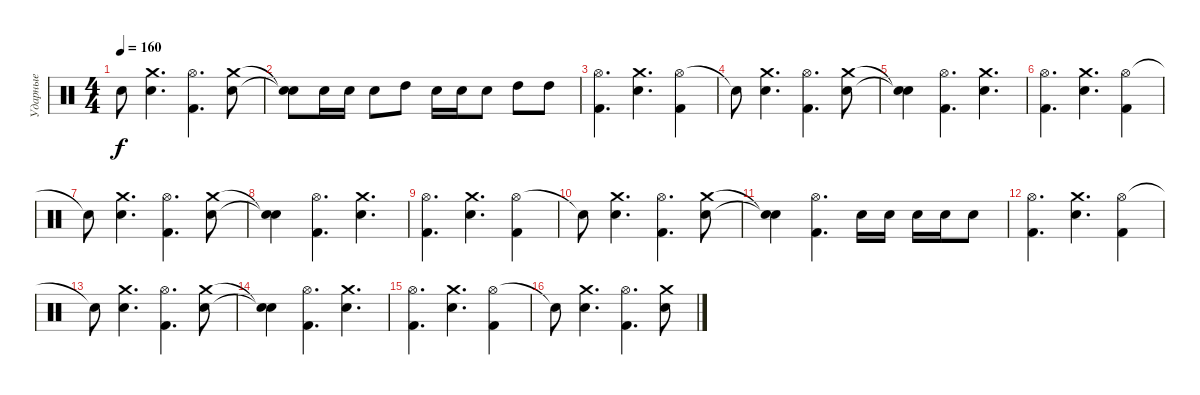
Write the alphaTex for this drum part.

\track ("Ударные" "Ударные") {instrument percussion}
\staff {score}
\articulation defaults
\ts (4 4)
\tempo 160
\clef neutral
\ks c "Snare (hit)"{t}.8{dy f}
("Crash medium (hit)" "Electric Snare (hit)").4{d} ("Hi-Hat (open)" "Kick (hit) 2").4{d} ("Crash medium (hit)" "Electric Snare (hit)").8 |
("Snare (hit)"{t} "Snare (hit)"{t}).8 "Electric Snare (hit)".16 "Electric Snare (hit)".16 "Electric Snare (hit)".8 "High Tom (hit)".8 "Electric Snare (hit)".16 "Electric Snare (hit)".16 "Electric Snare (hit)".8 "High Tom (hit)".8 "High Tom (hit)".8 |
("Hi-Hat (open)" "Kick (hit) 2").4{d} ("Crash medium (hit)" "Electric Snare (hit)").4{d} ("Hi-Hat (open)" "Kick (hit) 2").4 |
"Snare (hit)"{t}.8 ("Crash medium (hit)" "Electric Snare (hit)").4{d} ("Hi-Hat (open)" "Kick (hit) 2").4{d} ("Crash medium (hit)" "Electric Snare (hit)").8 |
("Snare (hit)"{t} "Snare (hit)"{t}).4 ("Hi-Hat (open)" "Kick (hit) 2").4{d} ("Crash medium (hit)" "Electric Snare (hit)").4{d} |
("Hi-Hat (open)" "Kick (hit) 2").4{d} ("Crash medium (hit)" "Electric Snare (hit)").4{d} ("Hi-Hat (open)" "Kick (hit) 2").4 |
"Snare (hit)"{t}.8 ("Crash medium (hit)" "Electric Snare (hit)").4{d} ("Hi-Hat (open)" "Kick (hit) 2").4{d} ("Crash medium (hit)" "Electric Snare (hit)").8 |
("Snare (hit)"{t} "Snare (hit)"{t}).4 ("Hi-Hat (open)" "Kick (hit) 2").4{d} ("Crash medium (hit)" "Electric Snare (hit)").4{d} |
("Hi-Hat (open)" "Kick (hit) 2").4{d} ("Crash medium (hit)" "Electric Snare (hit)").4{d} ("Hi-Hat (open)" "Kick (hit) 2").4 |
"Snare (hit)"{t}.8 ("Crash medium (hit)" "Electric Snare (hit)").4{d} ("Hi-Hat (open)" "Kick (hit) 2").4{d} ("Crash medium (hit)" "Electric Snare (hit)").8 |
("Snare (hit)"{t} "Snare (hit)"{t}).4 ("Hi-Hat (open)" "Kick (hit) 2").4{d} "Electric Snare (hit)".16 "Electric Snare (hit)".16 "Electric Snare (hit)".16 "Electric Snare (hit)".16 "Electric Snare (hit)".8 |
("Hi-Hat (open)" "Kick (hit) 2").4{d} ("Crash medium (hit)" "Electric Snare (hit)").4{d} ("Hi-Hat (open)" "Kick (hit) 2").4 |
"Snare (hit)"{t}.8 ("Crash medium (hit)" "Electric Snare (hit)").4{d} ("Hi-Hat (open)" "Kick (hit) 2").4{d} ("Crash medium (hit)" "Electric Snare (hit)").8 |
("Snare (hit)"{t} "Snare (hit)"{t}).4 ("Hi-Hat (open)" "Kick (hit) 2").4{d} ("Crash medium (hit)" "Electric Snare (hit)").4{d} |
("Hi-Hat (open)" "Kick (hit) 2").4{d} ("Crash medium (hit)" "Electric Snare (hit)").4{d} ("Hi-Hat (open)" "Kick (hit) 2").4 |
"Snare (hit)"{t}.8 ("Crash medium (hit)" "Electric Snare (hit)").4{d} ("Hi-Hat (open)" "Kick (hit) 2").4{d} ("Crash medium (hit)" "Electric Snare (hit)").8
